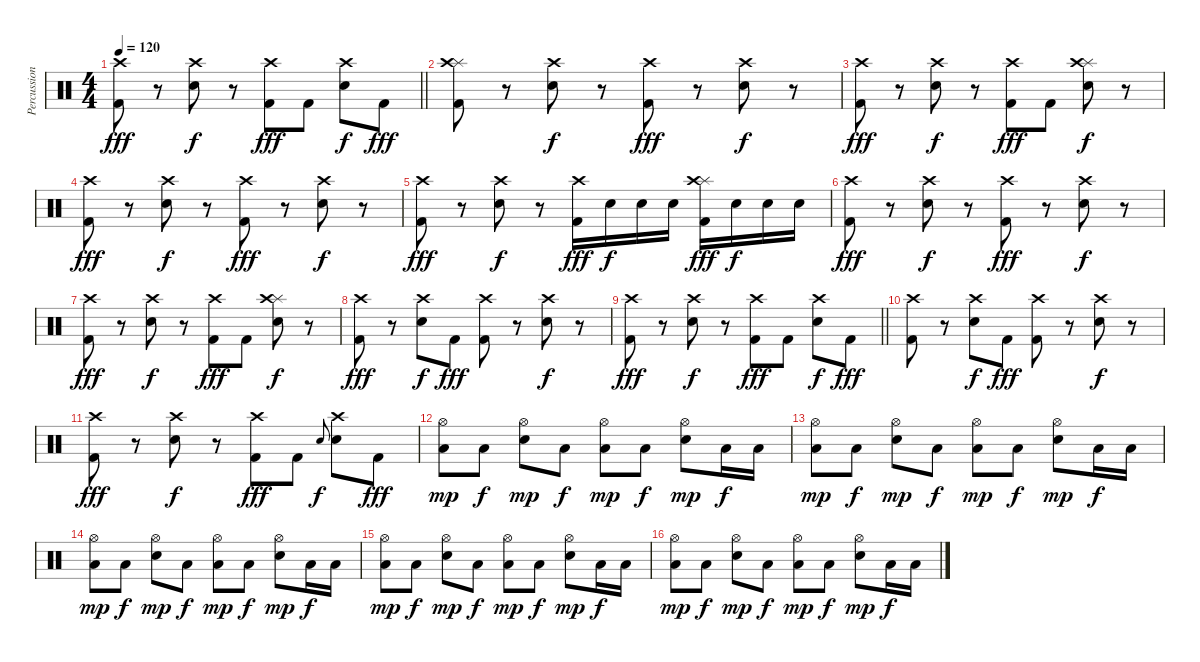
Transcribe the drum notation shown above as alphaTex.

\track ("Percussion" "Percussion") {instrument percussion}
\staff {score}
\articulation defaults
\ts (4 4)
\tempo 120
\clef neutral
\barLineRight lightlight
\ks c
("Crash high (hit)" "Kick (hit) 2").8{dy fff} r.8 ("Electric Snare (hit)" "Crash high (hit)").8{dy f} r.8 ("Crash high (hit)" "Kick (hit) 2").8{dy fff} "Kick (hit) 2".8 ("Electric Snare (hit)" "Crash high (hit)").8{dy f} "Kick (hit) 2".8{dy fff} |
("Splash (hit)" "Crash high (hit)" "Kick (hit) 2").8 r.8 ("Electric Snare (hit)" "Crash high (hit)").8{dy f} r.8 ("Crash high (hit)" "Kick (hit) 2").8{dy fff} r.8 ("Electric Snare (hit)" "Crash high (hit)").8{dy f} r.8 |
("Crash high (hit)" "Kick (hit) 2").8{dy fff} r.8 ("Electric Snare (hit)" "Crash high (hit)").8{dy f} r.8 ("Crash high (hit)" "Kick (hit) 2").8{dy fff} "Kick (hit) 2".8 ("Splash (hit)" "Electric Snare (hit)" "Crash high (hit)").8{dy f} r.8 |
("Crash high (hit)" "Kick (hit) 2").8{dy fff} r.8 ("Electric Snare (hit)" "Crash high (hit)").8{dy f} r.8 ("Crash high (hit)" "Kick (hit) 2").8{dy fff} r.8 ("Electric Snare (hit)" "Crash high (hit)").8{dy f} r.8 |
("Crash high (hit)" "Kick (hit) 2").8{dy fff} r.8 ("Electric Snare (hit)" "Crash high (hit)").8{dy f} r.8 ("Crash high (hit)" "Kick (hit) 2").16{dy fff} "Snare (hit) 2".16{dy f} "Electric Snare (hit)".16 "Snare (hit) 2".16 ("Splash (hit)" "Crash high (hit)" "Kick (hit) 2").16{dy fff} "Snare (hit) 2".16{dy f} "Electric Snare (hit)".16 "Snare (hit) 2".16 |
("Crash high (hit)" "Kick (hit) 2").8{dy fff} r.8 ("Electric Snare (hit)" "Crash high (hit)").8{dy f} r.8 ("Crash high (hit)" "Kick (hit) 2").8{dy fff} r.8 ("Electric Snare (hit)" "Crash high (hit)").8{dy f} r.8 |
("Crash high (hit)" "Kick (hit) 2").8{dy fff} r.8 ("Electric Snare (hit)" "Crash high (hit)").8{dy f} r.8 ("Crash high (hit)" "Kick (hit) 2").8{dy fff} "Kick (hit) 2".8 ("Splash (hit)" "Electric Snare (hit)" "Crash high (hit)").8{dy f} r.8 |
("Crash high (hit)" "Kick (hit) 2").8{dy fff} r.8 ("Electric Snare (hit)" "Crash high (hit)").8{dy f} "Kick (hit) 2".8{dy fff} ("Crash high (hit)" "Kick (hit) 2").8 r.8 ("Electric Snare (hit)" "Crash high (hit)").8{dy f} r.8 |
\barLineRight lightlight
("Crash high (hit)" "Kick (hit) 2").8{dy fff} r.8 ("Electric Snare (hit)" "Crash high (hit)").8{dy f} r.8 ("Crash high (hit)" "Kick (hit) 2").8{dy fff} "Kick (hit) 2".8 ("Electric Snare (hit)" "Crash high (hit)").8{dy f} "Kick (hit) 2".8{dy fff} |
("Crash high (hit)" "Kick (hit) 2").8 r.8 ("Electric Snare (hit)" "Crash high (hit)").8{dy f} "Kick (hit) 2".8{dy fff} ("Crash high (hit)" "Kick (hit) 2").8 r.8 ("Electric Snare (hit)" "Crash high (hit)").8{dy f} r.8 |
("Crash high (hit)" "Kick (hit) 2").8{dy fff} r.8 ("Electric Snare (hit)" "Crash high (hit)").8{dy f} r.8 ("Crash high (hit)" "Kick (hit) 2").8{dy fff} "Kick (hit) 2".8 "Electric Snare (hit)".8{gr onbeat dy f} ("Electric Snare (hit)" "Crash high (hit)").8 "Kick (hit) 2".8{dy fff} |
("Hi-Hat (open)" "Low Floor Tom (hit)").8{dy mp} "Low Floor Tom (hit)".8{dy f} ("Electric Snare (hit)" "Hi-Hat (open)").8{dy mp} "Low Floor Tom (hit)".8{dy f} ("Hi-Hat (open)" "Low Floor Tom (hit)").8{dy mp} "Low Floor Tom (hit)".8{dy f} ("Electric Snare (hit)" "Hi-Hat (open)").8{dy mp} "Low Floor Tom (hit)".16{dy f} "Low Floor Tom (hit)".16 |
("Hi-Hat (open)" "Low Floor Tom (hit)").8{dy mp} "Low Floor Tom (hit)".8{dy f} ("Electric Snare (hit)" "Hi-Hat (open)").8{dy mp} "Low Floor Tom (hit)".8{dy f} ("Hi-Hat (open)" "Low Floor Tom (hit)").8{dy mp} "Low Floor Tom (hit)".8{dy f} ("Electric Snare (hit)" "Hi-Hat (open)").8{dy mp} "Low Floor Tom (hit)".16{dy f} "Low Floor Tom (hit)".16 |
("Hi-Hat (open)" "Low Floor Tom (hit)").8{dy mp} "Low Floor Tom (hit)".8{dy f} ("Electric Snare (hit)" "Hi-Hat (open)").8{dy mp} "Low Floor Tom (hit)".8{dy f} ("Hi-Hat (open)" "Low Floor Tom (hit)").8{dy mp} "Low Floor Tom (hit)".8{dy f} ("Electric Snare (hit)" "Hi-Hat (open)").8{dy mp} "Low Floor Tom (hit)".16{dy f} "Low Floor Tom (hit)".16 |
("Hi-Hat (open)" "Low Floor Tom (hit)").8{dy mp} "Low Floor Tom (hit)".8{dy f} ("Electric Snare (hit)" "Hi-Hat (open)").8{dy mp} "Low Floor Tom (hit)".8{dy f} ("Hi-Hat (open)" "Low Floor Tom (hit)").8{dy mp} "Low Floor Tom (hit)".8{dy f} ("Electric Snare (hit)" "Hi-Hat (open)").8{dy mp} "Low Floor Tom (hit)".16{dy f} "Low Floor Tom (hit)".16 |
("Hi-Hat (open)" "Low Floor Tom (hit)").8{dy mp} "Low Floor Tom (hit)".8{dy f} ("Electric Snare (hit)" "Hi-Hat (open)").8{dy mp} "Low Floor Tom (hit)".8{dy f} ("Hi-Hat (open)" "Low Floor Tom (hit)").8{dy mp} "Low Floor Tom (hit)".8{dy f} ("Electric Snare (hit)" "Hi-Hat (open)").8{dy mp} "Low Floor Tom (hit)".16{dy f} "Low Floor Tom (hit)".16
